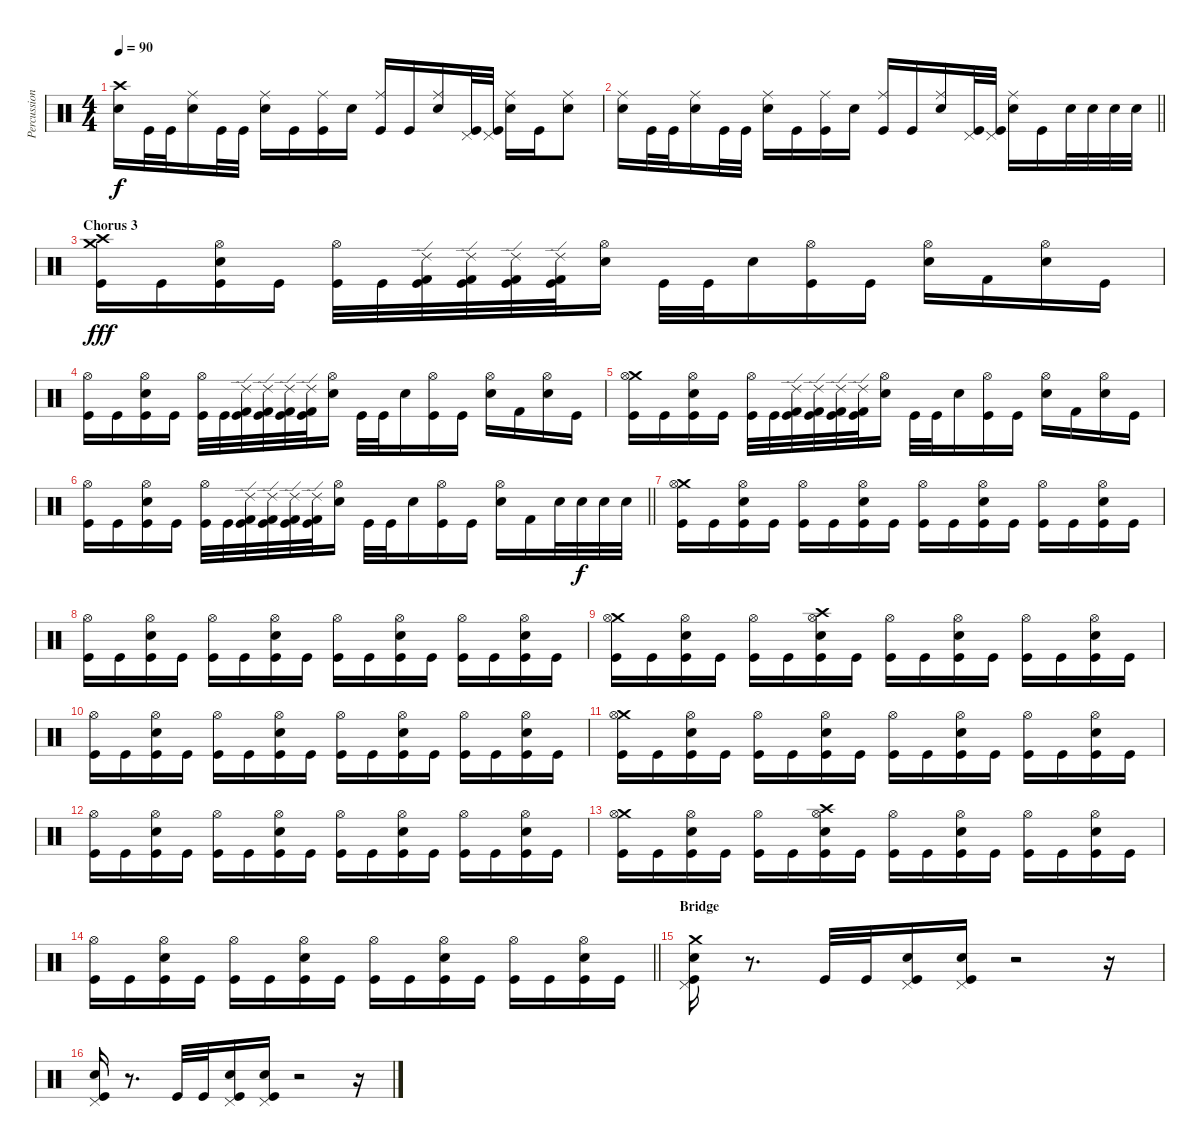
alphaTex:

\track ("Percussion" "Percussion") {instrument percussion}
\staff {score}
\articulation defaults
\ts (4 4)
\tempo 90
\clef neutral
\ks c
("Crash high (hit)" "Electric Snare (hit)").16{dy f} "Kick (hit)".32 "Kick (hit)".32 ("Ride (middle)" "Electric Snare (hit)").16 "Kick (hit)".32 "Kick (hit)".32 ("Ride (middle)" "Electric Snare (hit)").16 "Kick (hit)".16 ("Ride (middle)" "Kick (hit)").16 "Electric Snare (hit)".16 ("Ride (middle)" "Kick (hit)").16 "Kick (hit)".16 ("Ride (middle)" "Electric Snare (hit)").16 ("Pedal Hi-Hat (hit)" "Kick (hit)").32 ("Pedal Hi-Hat (hit)" "Kick (hit)").32 ("Ride (middle)" "Electric Snare (hit)").16 "Kick (hit)".16 ("Ride (middle)" "Electric Snare (hit)").8 |
\barLineRight lightlight
("Ride (middle)" "Electric Snare (hit)").16 "Kick (hit)".32 "Kick (hit)".32 ("Ride (middle)" "Electric Snare (hit)").16 "Kick (hit)".32 "Kick (hit)".32 ("Ride (middle)" "Electric Snare (hit)").16 "Kick (hit)".16 ("Ride (middle)" "Kick (hit)").16 "Electric Snare (hit)".16 ("Ride (middle)" "Kick (hit)").16 "Kick (hit)".16 ("Ride (middle)" "Electric Snare (hit)").16 ("Pedal Hi-Hat (hit)" "Kick (hit)").32 ("Pedal Hi-Hat (hit)" "Kick (hit)").32 ("Ride (middle)" "Electric Snare (hit)").16 "Kick (hit)".16 "Electric Snare (hit)".32 "Electric Snare (hit)".32 "Electric Snare (hit)".32 "Electric Snare (hit)".32 |
\section ("" "Chorus 3")
("Crash medium (hit)" "Crash high (hit)" "Kick (hit)").16{dy fff} "Kick (hit)".16 ("Hi-Hat (open)" "Electric Snare (hit)" "Kick (hit)").16 "Kick (hit)".16 ("Hi-Hat (open)" "Kick (hit)").32 "Kick (hit)".32 ("Ride (edge) 2" "Kick (hit) 2" "Kick (hit)").32 ("Ride (edge) 2" "Kick (hit) 2" "Kick (hit)").32 ("Ride (edge) 2" "Kick (hit) 2" "Kick (hit)").32 ("Ride (edge) 2" "Kick (hit) 2" "Kick (hit)").32 ("Hi-Hat (open)" "Electric Snare (hit)").16 "Kick (hit)".32 "Kick (hit)".32 "Electric Snare (hit)".16 ("Hi-Hat (open)" "Kick (hit)").16 "Kick (hit)".16 ("Hi-Hat (open)" "Electric Snare (hit)").16 "Kick (hit) 2".16 ("Hi-Hat (open)" "Electric Snare (hit)").16 "Kick (hit)".16 |
("Hi-Hat (open)" "Kick (hit)").16 "Kick (hit)".16 ("Hi-Hat (open)" "Electric Snare (hit)" "Kick (hit)").16 "Kick (hit)".16 ("Hi-Hat (open)" "Kick (hit)").32 "Kick (hit)".32 ("Ride (edge) 2" "Kick (hit) 2" "Kick (hit)").32 ("Ride (edge) 2" "Kick (hit) 2" "Kick (hit)").32 ("Ride (edge) 2" "Kick (hit) 2" "Kick (hit)").32 ("Ride (edge) 2" "Kick (hit) 2" "Kick (hit)").32 ("Hi-Hat (open)" "Electric Snare (hit)").16 "Kick (hit)".32 "Kick (hit)".32 "Electric Snare (hit)".16 ("Hi-Hat (open)" "Kick (hit)").16 "Kick (hit)".16 ("Hi-Hat (open)" "Electric Snare (hit)").16 "Kick (hit) 2".16 ("Hi-Hat (open)" "Electric Snare (hit)").16 "Kick (hit)".16 |
("Crash medium (hit)" "Hi-Hat (open)" "Kick (hit)").16 "Kick (hit)".16 ("Hi-Hat (open)" "Electric Snare (hit)" "Kick (hit)").16 "Kick (hit)".16 ("Hi-Hat (open)" "Kick (hit)").32 "Kick (hit)".32 ("Ride (edge) 2" "Kick (hit) 2" "Kick (hit)").32 ("Ride (edge) 2" "Kick (hit) 2" "Kick (hit)").32 ("Ride (edge) 2" "Kick (hit) 2" "Kick (hit)").32 ("Ride (edge) 2" "Kick (hit) 2" "Kick (hit)").32 ("Hi-Hat (open)" "Electric Snare (hit)").16 "Kick (hit)".32 "Kick (hit)".32 "Electric Snare (hit)".16 ("Hi-Hat (open)" "Kick (hit)").16 "Kick (hit)".16 ("Hi-Hat (open)" "Electric Snare (hit)").16 "Kick (hit) 2".16 ("Hi-Hat (open)" "Electric Snare (hit)").16 "Kick (hit)".16 |
\barLineRight lightlight
("Hi-Hat (open)" "Kick (hit)").16 "Kick (hit)".16 ("Hi-Hat (open)" "Electric Snare (hit)" "Kick (hit)").16 "Kick (hit)".16 ("Hi-Hat (open)" "Kick (hit)").32 "Kick (hit)".32 ("Ride (edge) 2" "Kick (hit) 2" "Kick (hit)").32 ("Ride (edge) 2" "Kick (hit) 2" "Kick (hit)").32 ("Ride (edge) 2" "Kick (hit) 2" "Kick (hit)").32 ("Ride (edge) 2" "Kick (hit) 2" "Kick (hit)").32 ("Hi-Hat (open)" "Electric Snare (hit)").16 "Kick (hit)".32 "Kick (hit)".32 "Electric Snare (hit)".16 ("Hi-Hat (open)" "Kick (hit)").16 "Kick (hit)".16 ("Hi-Hat (open)" "Electric Snare (hit)").16 "Kick (hit) 2".16 "Electric Snare (hit)".32 "Electric Snare (hit)".32{dy f} "Electric Snare (hit)".32 "Electric Snare (hit)".32 |
("Crash medium (hit)" "Hi-Hat (open)" "Kick (hit)").16 "Kick (hit)".16 ("Hi-Hat (open)" "Electric Snare (hit)" "Kick (hit)").16 "Kick (hit)".16 ("Hi-Hat (open)" "Kick (hit)").16 "Kick (hit)".16 ("Hi-Hat (open)" "Electric Snare (hit)" "Kick (hit)").16 "Kick (hit)".16 ("Hi-Hat (open)" "Kick (hit)").16 "Kick (hit)".16 ("Hi-Hat (open)" "Electric Snare (hit)" "Kick (hit)").16 "Kick (hit)".16 ("Hi-Hat (open)" "Kick (hit)").16 "Kick (hit)".16 ("Hi-Hat (open)" "Electric Snare (hit)" "Kick (hit)").16 "Kick (hit)".16 |
("Hi-Hat (open)" "Kick (hit)").16 "Kick (hit)".16 ("Hi-Hat (open)" "Electric Snare (hit)" "Kick (hit)").16 "Kick (hit)".16 ("Hi-Hat (open)" "Kick (hit)").16 "Kick (hit)".16 ("Hi-Hat (open)" "Electric Snare (hit)" "Kick (hit)").16 "Kick (hit)".16 ("Hi-Hat (open)" "Kick (hit)").16 "Kick (hit)".16 ("Hi-Hat (open)" "Electric Snare (hit)" "Kick (hit)").16 "Kick (hit)".16 ("Hi-Hat (open)" "Kick (hit)").16 "Kick (hit)".16 ("Hi-Hat (open)" "Electric Snare (hit)" "Kick (hit)").16 "Kick (hit)".16 |
("Crash medium (hit)" "Hi-Hat (open)" "Kick (hit)").16 "Kick (hit)".16 ("Hi-Hat (open)" "Electric Snare (hit)" "Kick (hit)").16 "Kick (hit)".16 ("Hi-Hat (open)" "Kick (hit)").16 "Kick (hit)".16 ("Crash high (hit)" "Hi-Hat (open)" "Electric Snare (hit)" "Kick (hit)").16 "Kick (hit)".16 ("Hi-Hat (open)" "Kick (hit)").16 "Kick (hit)".16 ("Hi-Hat (open)" "Electric Snare (hit)" "Kick (hit)").16 "Kick (hit)".16 ("Hi-Hat (open)" "Kick (hit)").16 "Kick (hit)".16 ("Hi-Hat (open)" "Electric Snare (hit)" "Kick (hit)").16 "Kick (hit)".16 |
("Hi-Hat (open)" "Kick (hit)").16 "Kick (hit)".16 ("Hi-Hat (open)" "Electric Snare (hit)" "Kick (hit)").16 "Kick (hit)".16 ("Hi-Hat (open)" "Kick (hit)").16 "Kick (hit)".16 ("Hi-Hat (open)" "Electric Snare (hit)" "Kick (hit)").16 "Kick (hit)".16 ("Hi-Hat (open)" "Kick (hit)").16 "Kick (hit)".16 ("Hi-Hat (open)" "Electric Snare (hit)" "Kick (hit)").16 "Kick (hit)".16 ("Hi-Hat (open)" "Kick (hit)").16 "Kick (hit)".16 ("Hi-Hat (open)" "Electric Snare (hit)" "Kick (hit)").16 "Kick (hit)".16 |
("Crash medium (hit)" "Hi-Hat (open)" "Kick (hit)").16 "Kick (hit)".16 ("Hi-Hat (open)" "Electric Snare (hit)" "Kick (hit)").16 "Kick (hit)".16 ("Hi-Hat (open)" "Kick (hit)").16 "Kick (hit)".16 ("Hi-Hat (open)" "Electric Snare (hit)" "Kick (hit)").16 "Kick (hit)".16 ("Hi-Hat (open)" "Kick (hit)").16 "Kick (hit)".16 ("Hi-Hat (open)" "Electric Snare (hit)" "Kick (hit)").16 "Kick (hit)".16 ("Hi-Hat (open)" "Kick (hit)").16 "Kick (hit)".16 ("Hi-Hat (open)" "Electric Snare (hit)" "Kick (hit)").16 "Kick (hit)".16 |
("Hi-Hat (open)" "Kick (hit)").16 "Kick (hit)".16 ("Hi-Hat (open)" "Electric Snare (hit)" "Kick (hit)").16 "Kick (hit)".16 ("Hi-Hat (open)" "Kick (hit)").16 "Kick (hit)".16 ("Hi-Hat (open)" "Electric Snare (hit)" "Kick (hit)").16 "Kick (hit)".16 ("Hi-Hat (open)" "Kick (hit)").16 "Kick (hit)".16 ("Hi-Hat (open)" "Electric Snare (hit)" "Kick (hit)").16 "Kick (hit)".16 ("Hi-Hat (open)" "Kick (hit)").16 "Kick (hit)".16 ("Hi-Hat (open)" "Electric Snare (hit)" "Kick (hit)").16 "Kick (hit)".16 |
("Crash medium (hit)" "Hi-Hat (open)" "Kick (hit)").16 "Kick (hit)".16 ("Hi-Hat (open)" "Electric Snare (hit)" "Kick (hit)").16 "Kick (hit)".16 ("Hi-Hat (open)" "Kick (hit)").16 "Kick (hit)".16 ("Crash high (hit)" "Hi-Hat (open)" "Electric Snare (hit)" "Kick (hit)").16 "Kick (hit)".16 ("Hi-Hat (open)" "Kick (hit)").16 "Kick (hit)".16 ("Hi-Hat (open)" "Electric Snare (hit)" "Kick (hit)").16 "Kick (hit)".16 ("Hi-Hat (open)" "Kick (hit)").16 "Kick (hit)".16 ("Hi-Hat (open)" "Electric Snare (hit)" "Kick (hit)").16 "Kick (hit)".16 |
\barLineRight lightlight
("Hi-Hat (open)" "Kick (hit)").16 "Kick (hit)".16 ("Hi-Hat (open)" "Electric Snare (hit)" "Kick (hit)").16 "Kick (hit)".16 ("Hi-Hat (open)" "Kick (hit)").16 "Kick (hit)".16 ("Hi-Hat (open)" "Electric Snare (hit)" "Kick (hit)").16 "Kick (hit)".16 ("Hi-Hat (open)" "Kick (hit)").16 "Kick (hit)".16 ("Hi-Hat (open)" "Electric Snare (hit)" "Kick (hit)").16 "Kick (hit)".16 ("Hi-Hat (open)" "Kick (hit)").16 "Kick (hit)".16 ("Hi-Hat (open)" "Electric Snare (hit)" "Kick (hit)").16 "Kick (hit)".16 |
\section ("" "Bridge")
("Crash medium (hit)" "Pedal Hi-Hat (hit)" "Electric Snare (hit)" "Kick (hit)").16 r.8{d} "Kick (hit)".32 "Kick (hit)".32 ("Pedal Hi-Hat (hit)" "Electric Snare (hit)" "Kick (hit)").16 ("Pedal Hi-Hat (hit)" "Electric Snare (hit)" "Kick (hit)").16 r.2 r.16 |
("Pedal Hi-Hat (hit)" "Electric Snare (hit)" "Kick (hit)").16 r.8{d} "Kick (hit)".32 "Kick (hit)".32 ("Pedal Hi-Hat (hit)" "Electric Snare (hit)" "Kick (hit)").16 ("Pedal Hi-Hat (hit)" "Electric Snare (hit)" "Kick (hit)").16 r.2 r.16
